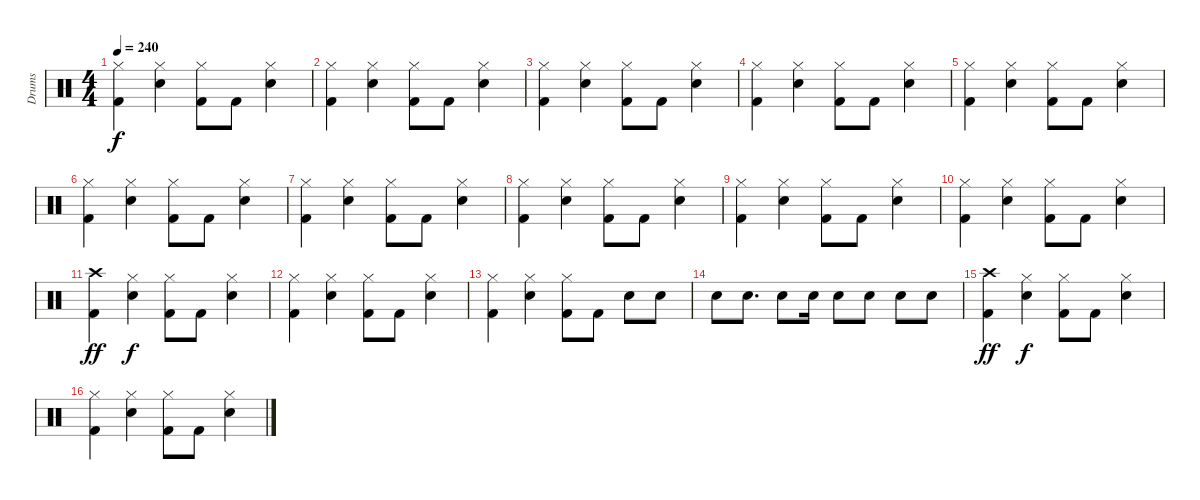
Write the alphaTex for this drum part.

\track ("Drums" "Drums") {instrument percussion}
\staff {score}
\articulation defaults
\ts (4 4)
\tempo 240
\clef neutral
\ks c
("Hi-Hat (closed)" "Kick (hit) 2").4{dy f} ("Hi-Hat (closed)" "Snare (hit) 2").4 ("Hi-Hat (closed)" "Kick (hit) 2").8 "Kick (hit) 2".8 ("Hi-Hat (closed)" "Snare (hit) 2").4 |
("Hi-Hat (closed)" "Kick (hit) 2").4 ("Hi-Hat (closed)" "Snare (hit) 2").4 ("Hi-Hat (closed)" "Kick (hit) 2").8 "Kick (hit) 2".8 ("Hi-Hat (closed)" "Snare (hit) 2").4 |
("Hi-Hat (closed)" "Kick (hit) 2").4 ("Hi-Hat (closed)" "Snare (hit) 2").4 ("Hi-Hat (closed)" "Kick (hit) 2").8 "Kick (hit) 2".8 ("Hi-Hat (closed)" "Snare (hit) 2").4 |
("Hi-Hat (closed)" "Kick (hit) 2").4 ("Hi-Hat (closed)" "Snare (hit) 2").4 ("Hi-Hat (closed)" "Kick (hit) 2").8 "Kick (hit) 2".8 ("Hi-Hat (closed)" "Snare (hit) 2").4 |
("Hi-Hat (closed)" "Kick (hit) 2").4 ("Hi-Hat (closed)" "Snare (hit) 2").4 ("Hi-Hat (closed)" "Kick (hit) 2").8 "Kick (hit) 2".8 ("Hi-Hat (closed)" "Snare (hit) 2").4 |
("Hi-Hat (closed)" "Kick (hit) 2").4 ("Hi-Hat (closed)" "Snare (hit) 2").4 ("Hi-Hat (closed)" "Kick (hit) 2").8 "Kick (hit) 2".8 ("Hi-Hat (closed)" "Snare (hit) 2").4 |
("Hi-Hat (closed)" "Kick (hit) 2").4 ("Hi-Hat (closed)" "Snare (hit) 2").4 ("Hi-Hat (closed)" "Kick (hit) 2").8 "Kick (hit) 2".8 ("Hi-Hat (closed)" "Snare (hit) 2").4 |
("Hi-Hat (closed)" "Kick (hit) 2").4 ("Hi-Hat (closed)" "Snare (hit) 2").4 ("Hi-Hat (closed)" "Kick (hit) 2").8 "Kick (hit) 2".8 ("Hi-Hat (closed)" "Snare (hit) 2").4 |
("Hi-Hat (closed)" "Kick (hit) 2").4 ("Hi-Hat (closed)" "Snare (hit) 2").4 ("Hi-Hat (closed)" "Kick (hit) 2").8 "Kick (hit) 2".8 ("Hi-Hat (closed)" "Snare (hit) 2").4 |
("Hi-Hat (closed)" "Kick (hit) 2").4 ("Hi-Hat (closed)" "Snare (hit) 2").4 ("Hi-Hat (closed)" "Kick (hit) 2").8 "Kick (hit) 2".8 ("Hi-Hat (closed)" "Snare (hit) 2").4 |
("Crash high (hit)" "Kick (hit) 2").4{dy ff} ("Hi-Hat (closed)" "Snare (hit) 2").4{dy f} ("Hi-Hat (closed)" "Kick (hit) 2").8 "Kick (hit) 2".8 ("Hi-Hat (closed)" "Snare (hit) 2").4 |
("Hi-Hat (closed)" "Kick (hit) 2").4 ("Hi-Hat (closed)" "Snare (hit) 2").4 ("Hi-Hat (closed)" "Kick (hit) 2").8 "Kick (hit) 2".8 ("Hi-Hat (closed)" "Snare (hit) 2").4 |
("Hi-Hat (closed)" "Kick (hit) 2").4 ("Hi-Hat (closed)" "Snare (hit) 2").4 ("Hi-Hat (closed)" "Kick (hit) 2").8 "Kick (hit) 2".8 "Electric Snare (hit)".8 "Electric Snare (hit)".8 |
"Electric Snare (hit)".8 "Electric Snare (hit)".8{d} "Electric Snare (hit)".8 "Electric Snare (hit)".16 "Electric Snare (hit)".8 "Electric Snare (hit)".8 "Electric Snare (hit)".8 "Electric Snare (hit)".8 |
("Crash high (hit)" "Kick (hit) 2").4{dy ff} ("Hi-Hat (closed)" "Snare (hit) 2").4{dy f} ("Hi-Hat (closed)" "Kick (hit) 2").8 "Kick (hit) 2".8 ("Hi-Hat (closed)" "Snare (hit) 2").4 |
("Hi-Hat (closed)" "Kick (hit) 2").4 ("Hi-Hat (closed)" "Snare (hit) 2").4 ("Hi-Hat (closed)" "Kick (hit) 2").8 "Kick (hit) 2".8 ("Hi-Hat (closed)" "Snare (hit) 2").4
